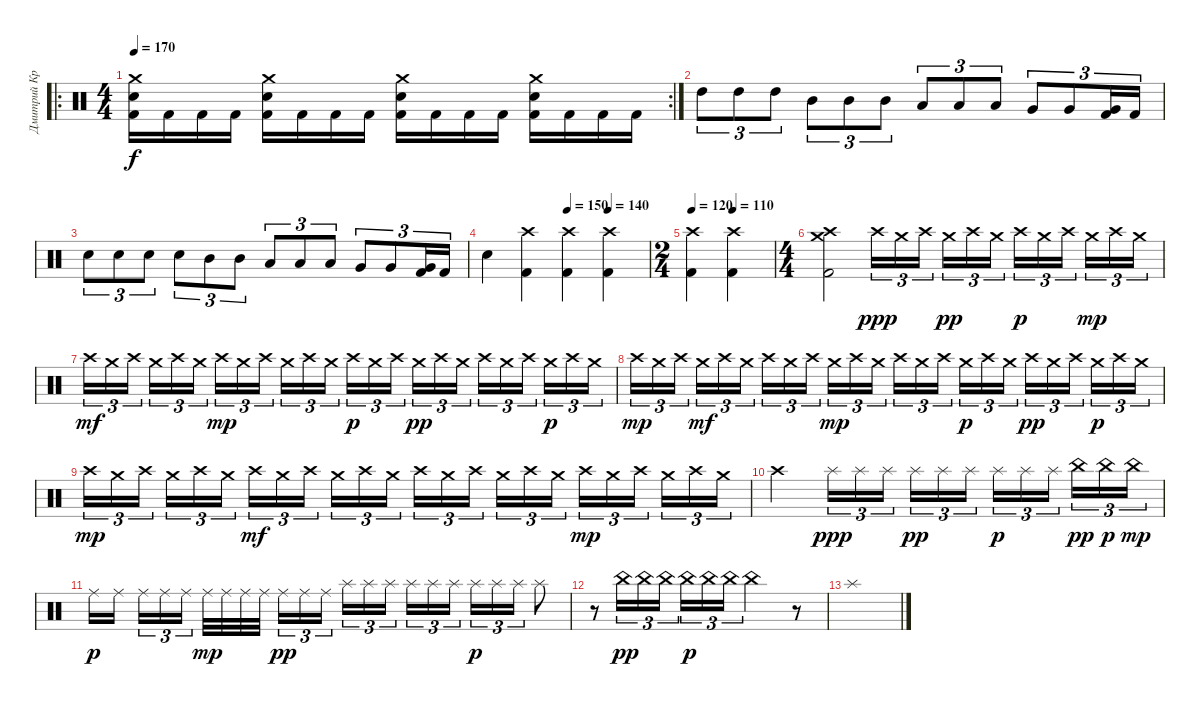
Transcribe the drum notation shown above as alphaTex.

\track ("Дмитрий Кривенков" "Дмитрий Кр") {instrument percussion}
\staff {score}
\articulation defaults
\ro
\rc 2
\ts (4 4)
\tempo 170
\clef neutral
\ks c
("Crash medium (hit)" "Electric Snare (hit)" "Kick (hit) 2").16{dy f} "Kick (hit) 2".16 "Kick (hit) 2".16 "Kick (hit) 2".16 ("Crash medium (hit)" "Electric Snare (hit)" "Kick (hit) 2").16 "Kick (hit) 2".16 "Kick (hit) 2".16 "Kick (hit) 2".16 ("Crash medium (hit)" "Electric Snare (hit)" "Kick (hit) 2").16 "Kick (hit) 2".16 "Kick (hit) 2".16 "Kick (hit) 2".16 ("Crash medium (hit)" "Electric Snare (hit)" "Kick (hit) 2").16 "Kick (hit) 2".16 "Kick (hit) 2".16 "Kick (hit) 2".16 |
"High Tom (hit)".8{tu (3 2)} "High Tom (hit)".8{tu (3 2)} "High Tom (hit)".8{tu (3 2)} "Mid Tom (hit)".8{tu (3 2)} "Mid Tom (hit)".8{tu (3 2)} "Mid Tom (hit)".8{tu (3 2)} "Low Tom (hit)".8{tu (3 2)} "Low Tom (hit)".8{tu (3 2)} "Low Tom (hit)".8{tu (3 2)} "Very Low Tom (hit)".8{tu (3 2)} "Very Low Tom (hit)".8{tu (3 2)} ("Very Low Tom (hit)" "Kick (hit) 2").16{tu (3 2)} "Kick (hit) 2".16{tu (3 2)} |
"Electric Snare (hit)".8{tu (3 2)} "Electric Snare (hit)".8{tu (3 2)} "Electric Snare (hit)".8{tu (3 2)} "Electric Snare (hit)".8{tu (3 2)} "Mid Tom (hit)".8{tu (3 2)} "Mid Tom (hit)".8{tu (3 2)} "Low Tom (hit)".8{tu (3 2)} "Low Tom (hit)".8{tu (3 2)} "Low Tom (hit)".8{tu (3 2)} "Very Low Tom (hit)".8{tu (3 2)} "Very Low Tom (hit)".8{tu (3 2)} ("Very Low Tom (hit)" "Kick (hit) 2").16{tu (3 2)} "Kick (hit) 2".16{tu (3 2)} |
\tempo (150 0.5)
\tempo (140 0.75)
"Electric Snare (hit)".4 ("Crash high (hit)" "Kick (hit) 2").4 ("Crash high (hit)" "Kick (hit) 2").4 ("Crash high (hit)" "Kick (hit) 2").4 |
\ts (2 4)
\tempo 120
\tempo (110 0.5)
("Crash high (hit)" "Kick (hit) 2").4 ("Crash high (hit)" "Kick (hit) 2").4 |
\ts (4 4)
("Crash medium (hit)" "Crash high (hit)" "Kick (hit) 2").2 "Crash high (hit)".16{tu (3 2) dy ppp} "Crash medium (hit)".16{tu (3 2)} "Crash high (hit)".16{tu (3 2) beam splitsecondary} "Crash medium (hit)".16{tu (3 2) dy pp} "Crash high (hit)".16{tu (3 2)} "Crash medium (hit)".16{tu (3 2)} "Crash high (hit)".16{tu (3 2) dy p} "Crash medium (hit)".16{tu (3 2)} "Crash high (hit)".16{tu (3 2) beam splitsecondary} "Crash medium (hit)".16{tu (3 2) dy mp} "Crash high (hit)".16{tu (3 2)} "Crash medium (hit)".16{tu (3 2)} |
"Crash high (hit)".16{tu (3 2) dy mf} "Crash medium (hit)".16{tu (3 2)} "Crash high (hit)".16{tu (3 2) beam splitsecondary} "Crash medium (hit)".16{tu (3 2)} "Crash high (hit)".16{tu (3 2)} "Crash medium (hit)".16{tu (3 2)} "Crash high (hit)".16{tu (3 2) dy mp} "Crash medium (hit)".16{tu (3 2)} "Crash high (hit)".16{tu (3 2) beam splitsecondary} "Crash medium (hit)".16{tu (3 2)} "Crash high (hit)".16{tu (3 2)} "Crash medium (hit)".16{tu (3 2)} "Crash high (hit)".16{tu (3 2) dy p} "Crash medium (hit)".16{tu (3 2)} "Crash high (hit)".16{tu (3 2) beam splitsecondary} "Crash medium (hit)".16{tu (3 2) dy pp} "Crash high (hit)".16{tu (3 2)} "Crash medium (hit)".16{tu (3 2)} "Crash high (hit)".16{tu (3 2)} "Crash medium (hit)".16{tu (3 2)} "Crash high (hit)".16{tu (3 2) beam splitsecondary} "Crash medium (hit)".16{tu (3 2) dy p} "Crash high (hit)".16{tu (3 2)} "Crash medium (hit)".16{tu (3 2)} |
"Crash high (hit)".16{tu (3 2) dy mp} "Crash medium (hit)".16{tu (3 2)} "Crash high (hit)".16{tu (3 2) beam splitsecondary} "Crash medium (hit)".16{tu (3 2) dy mf} "Crash high (hit)".16{tu (3 2)} "Crash medium (hit)".16{tu (3 2)} "Crash high (hit)".16{tu (3 2)} "Crash medium (hit)".16{tu (3 2)} "Crash high (hit)".16{tu (3 2) beam splitsecondary} "Crash medium (hit)".16{tu (3 2) dy mp} "Crash high (hit)".16{tu (3 2)} "Crash medium (hit)".16{tu (3 2)} "Crash high (hit)".16{tu (3 2)} "Crash medium (hit)".16{tu (3 2)} "Crash high (hit)".16{tu (3 2) beam splitsecondary} "Crash medium (hit)".16{tu (3 2) dy p} "Crash high (hit)".16{tu (3 2)} "Crash medium (hit)".16{tu (3 2)} "Crash high (hit)".16{tu (3 2) dy pp} "Crash medium (hit)".16{tu (3 2)} "Crash high (hit)".16{tu (3 2) beam splitsecondary} "Crash medium (hit)".16{tu (3 2) dy p} "Crash high (hit)".16{tu (3 2)} "Crash medium (hit)".16{tu (3 2)} |
"Crash high (hit)".16{tu (3 2) dy mp} "Crash medium (hit)".16{tu (3 2)} "Crash high (hit)".16{tu (3 2) beam splitsecondary} "Crash medium (hit)".16{tu (3 2)} "Crash high (hit)".16{tu (3 2)} "Crash medium (hit)".16{tu (3 2)} "Crash high (hit)".16{tu (3 2) dy mf} "Crash medium (hit)".16{tu (3 2)} "Crash high (hit)".16{tu (3 2) beam splitsecondary} "Crash medium (hit)".16{tu (3 2)} "Crash high (hit)".16{tu (3 2)} "Crash medium (hit)".16{tu (3 2)} "Crash high (hit)".16{tu (3 2)} "Crash medium (hit)".16{tu (3 2)} "Crash high (hit)".16{tu (3 2) beam splitsecondary} "Crash medium (hit)".16{tu (3 2)} "Crash high (hit)".16{tu (3 2)} "Crash medium (hit)".16{tu (3 2)} "Crash high (hit)".16{tu (3 2) dy mp} "Crash medium (hit)".16{tu (3 2)} "Crash high (hit)".16{tu (3 2) beam splitsecondary} "Crash medium (hit)".16{tu (3 2)} "Crash high (hit)".16{tu (3 2)} "Crash medium (hit)".16{tu (3 2)} |
"Crash high (hit)".2 "Splash (hit)".16{tu (3 2) dy ppp} "Splash (hit)".16{tu (3 2)} "Splash (hit)".16{tu (3 2) beam splitsecondary} "Splash (hit)".16{tu (3 2) dy pp} "Splash (hit)".16{tu (3 2)} "Splash (hit)".16{tu (3 2)} "Splash (hit)".16{tu (3 2) dy p} "Splash (hit)".16{tu (3 2)} "Splash (hit)".16{tu (3 2) beam splitsecondary} "China (hit)".16{tu (3 2) dy pp} "China (hit)".16{tu (3 2) dy p} "China (hit)".16{tu (3 2) dy mp} |
"Ride (middle)".16{dy p} "Ride (middle)".16{beam splitsecondary} "Ride (middle)".16{tu (3 2)} "Ride (middle)".16{tu (3 2)} "Ride (middle)".16{tu (3 2)} "Ride (middle)".32{dy mp} "Ride (middle)".32 "Ride (middle)".32 "Ride (middle)".32{beam splitsecondary} "Ride (middle)".16{tu (3 2) dy pp} "Ride (middle)".16{tu (3 2)} "Ride (middle)".16{tu (3 2)} "Splash (hit)".16{tu (3 2)} "Splash (hit)".16{tu (3 2)} "Splash (hit)".16{tu (3 2) beam splitsecondary} "Splash (hit)".16{tu (3 2)} "Splash (hit)".16{tu (3 2)} "Splash (hit)".16{tu (3 2)} "Splash (hit)".16{tu (3 2) dy p} "Splash (hit)".16{tu (3 2)} "Splash (hit)".16{tu (3 2)} "Splash (hit)".8 |
r.8 "China (hit)".16{tu (3 2) dy pp} "China (hit)".16{tu (3 2)} "China (hit)".16{tu (3 2)} "China (hit)".16{tu (3 2) dy p} "China (hit)".16{tu (3 2)} "China (hit)".16{tu (3 2)} "China (hit)".2 r.8 |
"Splash (hit)".1
